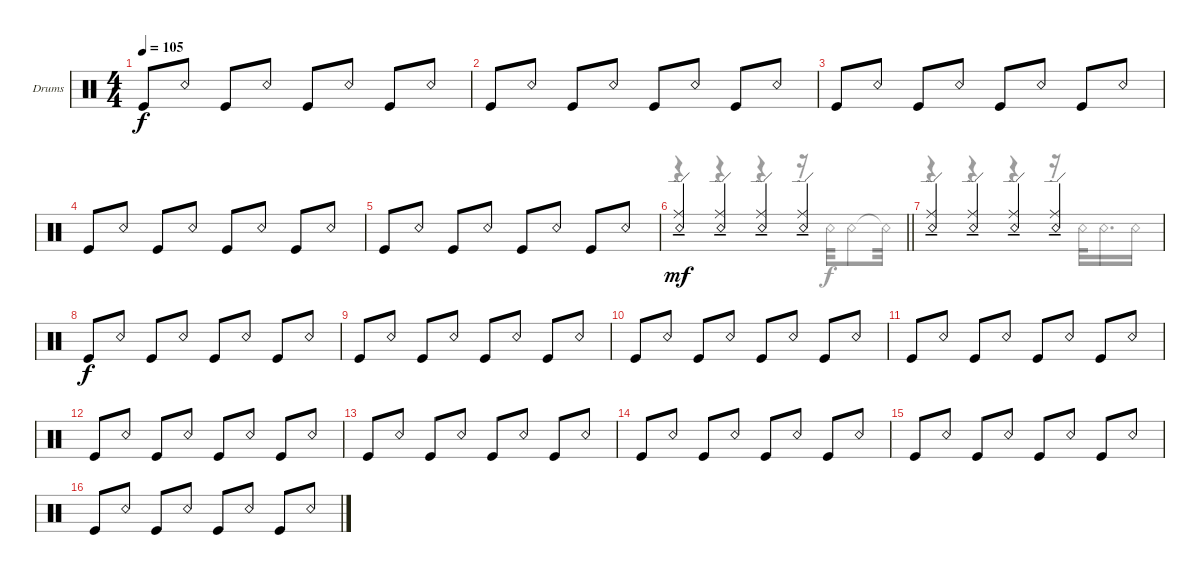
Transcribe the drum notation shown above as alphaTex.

\bracketExtendMode groupsimilarinstruments
\firstSystemTrackNameOrientation horizontal
\otherSystemsTrackNameOrientation horizontal
\track ("Drumkit" "Drums") {instrument percussion}
\staff {score}
\articulation defaults
\voice
\ts (4 4)
\tempo 105
\clef neutral
\ks c "Kick (hit)".8{dy f} "Snare (rim shot)".8 "Kick (hit)".8 "Snare (rim shot)".8 "Kick (hit)".8 "Snare (rim shot)".8 "Kick (hit)".8 "Snare (rim shot)".8
|
"Kick (hit)".8 "Snare (rim shot)".8 "Kick (hit)".8 "Snare (rim shot)".8 "Kick (hit)".8 "Snare (rim shot)".8 "Kick (hit)".8 "Snare (rim shot)".8 |
"Kick (hit)".8 "Snare (rim shot)".8 "Kick (hit)".8 "Snare (rim shot)".8 "Kick (hit)".8 "Snare (rim shot)".8 "Kick (hit)".8 "Snare (rim shot)".8 |
"Kick (hit)".8 "Snare (rim shot)".8 "Kick (hit)".8 "Snare (rim shot)".8 "Kick (hit)".8 "Snare (rim shot)".8 "Kick (hit)".8 "Snare (rim shot)".8 |
"Kick (hit)".8 "Snare (rim shot)".8 "Kick (hit)".8 "Snare (rim shot)".8 "Kick (hit)".8 "Snare (rim shot)".8 "Kick (hit)".8 "Snare (rim shot)".8 |
\barLineRight lightlight
("Ride (edge)"{ten} "Snare (rim shot)").4{dy mf} ("Ride (edge)"{ten} "Snare (rim shot)").4 ("Ride (edge)"{ten} "Snare (rim shot)").4 ("Ride (edge)"{ten} "Snare (rim shot)").4 |
("Ride (edge)"{ten} "Snare (rim shot)").4 ("Ride (edge)"{ten} "Snare (rim shot)").4 ("Ride (edge)"{ten} "Snare (rim shot)").4 ("Ride (edge)"{ten} "Snare (rim shot)").4 |
"Kick (hit)".8{dy f} "Snare (rim shot)".8 "Kick (hit)".8 "Snare (rim shot)".8 "Kick (hit)".8 "Snare (rim shot)".8 "Kick (hit)".8 "Snare (rim shot)".8 |
"Kick (hit)".8 "Snare (rim shot)".8 "Kick (hit)".8 "Snare (rim shot)".8 "Kick (hit)".8 "Snare (rim shot)".8 "Kick (hit)".8 "Snare (rim shot)".8 |
"Kick (hit)".8 "Snare (rim shot)".8 "Kick (hit)".8 "Snare (rim shot)".8 "Kick (hit)".8 "Snare (rim shot)".8 "Kick (hit)".8 "Snare (rim shot)".8 |
"Kick (hit)".8 "Snare (rim shot)".8 "Kick (hit)".8 "Snare (rim shot)".8 "Kick (hit)".8 "Snare (rim shot)".8 "Kick (hit)".8 "Snare (rim shot)".8 |
"Kick (hit)".8 "Snare (rim shot)".8 "Kick (hit)".8 "Snare (rim shot)".8 "Kick (hit)".8 "Snare (rim shot)".8 "Kick (hit)".8 "Snare (rim shot)".8 |
"Kick (hit)".8 "Snare (rim shot)".8 "Kick (hit)".8 "Snare (rim shot)".8 "Kick (hit)".8 "Snare (rim shot)".8 "Kick (hit)".8 "Snare (rim shot)".8 |
"Kick (hit)".8 "Snare (rim shot)".8 "Kick (hit)".8 "Snare (rim shot)".8 "Kick (hit)".8 "Snare (rim shot)".8 "Kick (hit)".8 "Snare (rim shot)".8 |
"Kick (hit)".8 "Snare (rim shot)".8 "Kick (hit)".8 "Snare (rim shot)".8 "Kick (hit)".8 "Snare (rim shot)".8 "Kick (hit)".8 "Snare (rim shot)".8 |
"Kick (hit)".8 "Snare (rim shot)".8 "Kick (hit)".8 "Snare (rim shot)".8 "Kick (hit)".8 "Snare (rim shot)".8 "Kick (hit)".8 "Snare (rim shot)".8
\voice
\clef neutral
\ottava regular
\simile none
\ks c
|
|
|
|
|
\barLineRight lightlight
r.4 r.4 r.4 r.16 "Snare (rim shot)".32 "Snare (rim shot)".8 "Snare (rim shot)"{t}.32 |
r.4 r.4 r.4 r.16 "Snare (rim shot)".32 "Snare (rim shot)".16{d} "Snare (rim shot)".16 |
|
|
|
|
|
|
|
|
